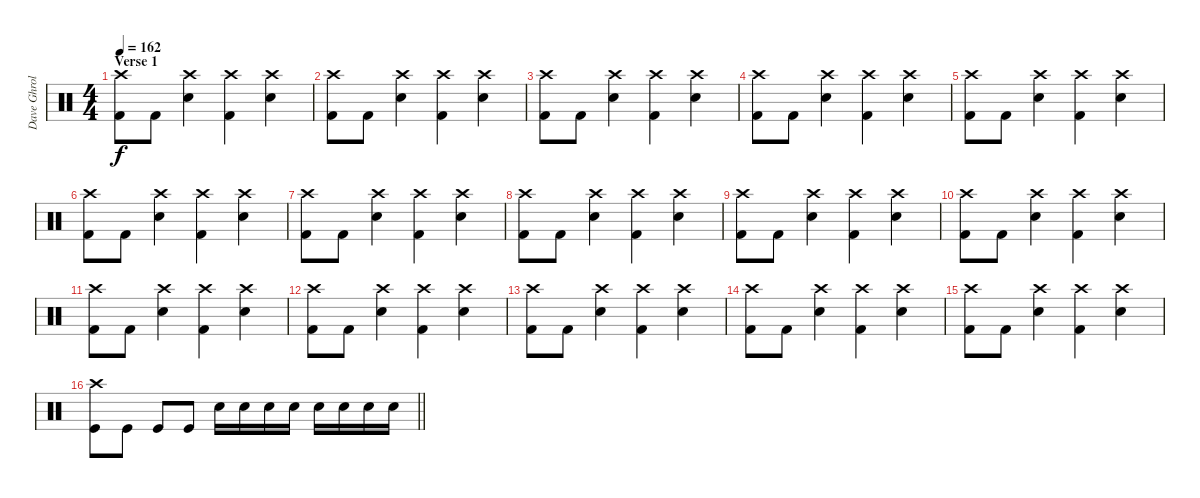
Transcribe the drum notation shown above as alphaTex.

\track ("Dave Ghrol" "Dave Ghrol") {instrument percussion}
\staff {score}
\articulation defaults
\ts (4 4)
\section ("" "Verse 1")
\tempo 162
\clef neutral
\ks c
("Crash high (hit)" "Kick (hit) 2").8{dy f} "Kick (hit) 2".8 ("Crash high (hit)" "Snare (hit) 2").4 ("Crash high (hit)" "Kick (hit) 2").4 ("Crash high (hit)" "Snare (hit) 2").4 |
("Crash high (hit)" "Kick (hit) 2").8 "Kick (hit) 2".8 ("Crash high (hit)" "Snare (hit) 2").4 ("Crash high (hit)" "Kick (hit) 2").4 ("Crash high (hit)" "Snare (hit) 2").4 |
("Crash high (hit)" "Kick (hit) 2").8 "Kick (hit) 2".8 ("Crash high (hit)" "Snare (hit) 2").4 ("Crash high (hit)" "Kick (hit) 2").4 ("Crash high (hit)" "Snare (hit) 2").4 |
("Crash high (hit)" "Kick (hit) 2").8 "Kick (hit) 2".8 ("Crash high (hit)" "Snare (hit) 2").4 ("Crash high (hit)" "Kick (hit) 2").4 ("Crash high (hit)" "Snare (hit) 2").4 |
("Crash high (hit)" "Kick (hit) 2").8 "Kick (hit) 2".8 ("Crash high (hit)" "Snare (hit) 2").4 ("Crash high (hit)" "Kick (hit) 2").4 ("Crash high (hit)" "Snare (hit) 2").4 |
("Crash high (hit)" "Kick (hit) 2").8 "Kick (hit) 2".8 ("Crash high (hit)" "Snare (hit) 2").4 ("Crash high (hit)" "Kick (hit) 2").4 ("Crash high (hit)" "Snare (hit) 2").4 |
("Crash high (hit)" "Kick (hit) 2").8 "Kick (hit) 2".8 ("Crash high (hit)" "Snare (hit) 2").4 ("Crash high (hit)" "Kick (hit) 2").4 ("Crash high (hit)" "Snare (hit) 2").4 |
("Crash high (hit)" "Kick (hit) 2").8 "Kick (hit) 2".8 ("Crash high (hit)" "Snare (hit) 2").4 ("Crash high (hit)" "Kick (hit) 2").4 ("Crash high (hit)" "Snare (hit) 2").4 |
("Crash high (hit)" "Kick (hit) 2").8 "Kick (hit) 2".8 ("Crash high (hit)" "Snare (hit) 2").4 ("Crash high (hit)" "Kick (hit) 2").4 ("Crash high (hit)" "Snare (hit) 2").4 |
("Crash high (hit)" "Kick (hit) 2").8 "Kick (hit) 2".8 ("Crash high (hit)" "Snare (hit) 2").4 ("Crash high (hit)" "Kick (hit) 2").4 ("Crash high (hit)" "Snare (hit) 2").4 |
("Crash high (hit)" "Kick (hit) 2").8 "Kick (hit) 2".8 ("Crash high (hit)" "Snare (hit) 2").4 ("Crash high (hit)" "Kick (hit) 2").4 ("Crash high (hit)" "Snare (hit) 2").4 |
("Crash high (hit)" "Kick (hit) 2").8 "Kick (hit) 2".8 ("Crash high (hit)" "Snare (hit) 2").4 ("Crash high (hit)" "Kick (hit) 2").4 ("Crash high (hit)" "Snare (hit) 2").4 |
("Crash high (hit)" "Kick (hit) 2").8 "Kick (hit) 2".8 ("Crash high (hit)" "Snare (hit) 2").4 ("Crash high (hit)" "Kick (hit) 2").4 ("Crash high (hit)" "Snare (hit) 2").4 |
("Crash high (hit)" "Kick (hit) 2").8 "Kick (hit) 2".8 ("Crash high (hit)" "Snare (hit) 2").4 ("Crash high (hit)" "Kick (hit) 2").4 ("Crash high (hit)" "Snare (hit) 2").4 |
("Crash high (hit)" "Kick (hit) 2").8 "Kick (hit) 2".8 ("Crash high (hit)" "Snare (hit) 2").4 ("Crash high (hit)" "Kick (hit) 2").4 ("Crash high (hit)" "Snare (hit) 2").4 |
\barLineRight lightlight
("Crash high (hit)" "Kick (hit)").8 "Kick (hit)".8 "Kick (hit)".8 "Kick (hit)".8 "Snare (hit) 2".16 "Snare (hit) 2".16 "Snare (hit) 2".16 "Snare (hit) 2".16 "Snare (hit) 2".16 "Snare (hit) 2".16 "Snare (hit) 2".16 "Snare (hit) 2".16
